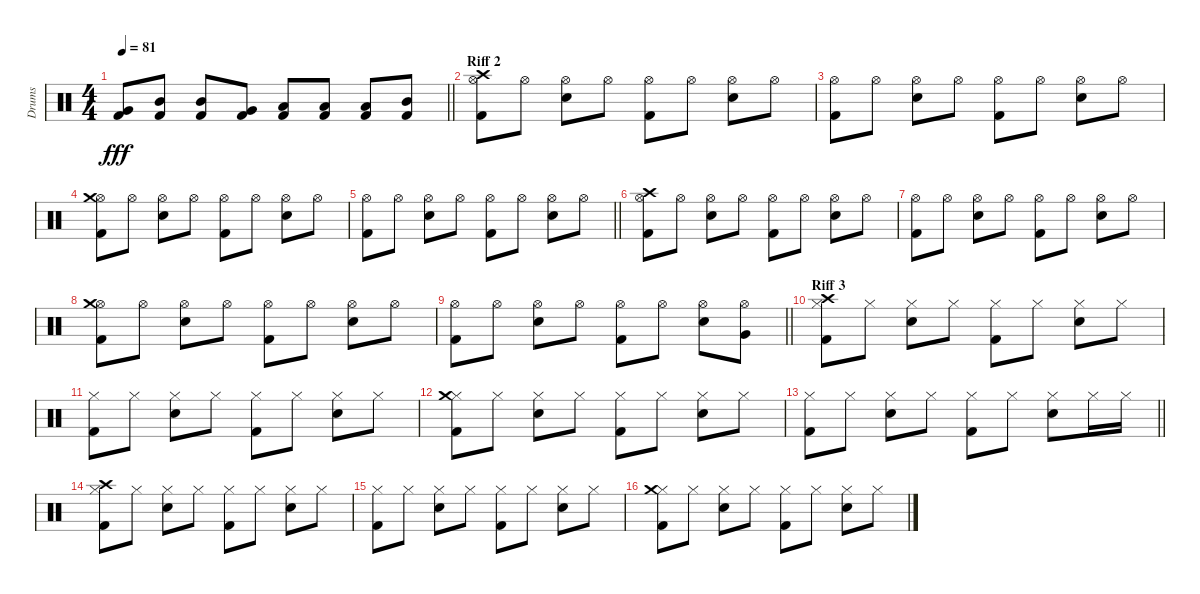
\track ("Drums" "Drums") {instrument percussion}
\staff {score}
\articulation defaults
\ts (4 4)
\tempo 81
\clef neutral
\barLineRight lightlight
\ks c
("Very Low Tom (hit)" "Kick (hit) 2").8{dy fff} ("Mid Tom (hit)" "Kick (hit) 2").8 ("Mid Tom (hit)" "Kick (hit) 2").8 ("Very Low Tom (hit)" "Kick (hit) 2").8 ("Low Tom (hit)" "Kick (hit) 2").8 ("Low Floor Tom (hit)" "Kick (hit) 2").8 ("Low Tom (hit)" "Kick (hit) 2").8 ("Mid Tom (hit)" "Kick (hit) 2").8 |
\section ("" "Riff 2")
("Hi-Hat (open)" "Crash high (hit)" "Kick (hit) 2").8 "Hi-Hat (open)".8 ("Hi-Hat (open)" "Electric Snare (hit)").8 "Hi-Hat (open)".8 ("Hi-Hat (open)" "Kick (hit) 2").8 "Hi-Hat (open)".8 ("Hi-Hat (open)" "Electric Snare (hit)").8 "Hi-Hat (open)".8 |
("Hi-Hat (open)" "Kick (hit) 2").8 "Hi-Hat (open)".8 ("Hi-Hat (open)" "Electric Snare (hit)").8 "Hi-Hat (open)".8 ("Hi-Hat (open)" "Kick (hit) 2").8 "Hi-Hat (open)".8 ("Hi-Hat (open)" "Electric Snare (hit)").8 "Hi-Hat (open)".8 |
("Hi-Hat (open)" "Crash medium (hit)" "Kick (hit) 2").8 "Hi-Hat (open)".8 ("Hi-Hat (open)" "Electric Snare (hit)").8 "Hi-Hat (open)".8 ("Hi-Hat (open)" "Kick (hit) 2").8 "Hi-Hat (open)".8 ("Hi-Hat (open)" "Electric Snare (hit)").8 "Hi-Hat (open)".8 |
\barLineRight lightlight
("Hi-Hat (open)" "Kick (hit) 2").8 "Hi-Hat (open)".8 ("Hi-Hat (open)" "Electric Snare (hit)").8 "Hi-Hat (open)".8 ("Hi-Hat (open)" "Kick (hit) 2").8 "Hi-Hat (open)".8 ("Hi-Hat (open)" "Electric Snare (hit)").8 "Hi-Hat (open)".8 |
("Hi-Hat (open)" "Crash high (hit)" "Kick (hit) 2").8 "Hi-Hat (open)".8 ("Hi-Hat (open)" "Electric Snare (hit)").8 "Hi-Hat (open)".8 ("Hi-Hat (open)" "Kick (hit) 2").8 "Hi-Hat (open)".8 ("Hi-Hat (open)" "Electric Snare (hit)").8 "Hi-Hat (open)".8 |
("Hi-Hat (open)" "Kick (hit) 2").8 "Hi-Hat (open)".8 ("Hi-Hat (open)" "Electric Snare (hit)").8 "Hi-Hat (open)".8 ("Hi-Hat (open)" "Kick (hit) 2").8 "Hi-Hat (open)".8 ("Hi-Hat (open)" "Electric Snare (hit)").8 "Hi-Hat (open)".8 |
("Hi-Hat (open)" "Crash medium (hit)" "Kick (hit) 2").8 "Hi-Hat (open)".8 ("Hi-Hat (open)" "Electric Snare (hit)").8 "Hi-Hat (open)".8 ("Hi-Hat (open)" "Kick (hit) 2").8 "Hi-Hat (open)".8 ("Hi-Hat (open)" "Electric Snare (hit)").8 "Hi-Hat (open)".8 |
\barLineRight lightlight
("Hi-Hat (open)" "Kick (hit) 2").8 "Hi-Hat (open)".8 ("Hi-Hat (open)" "Electric Snare (hit)").8 "Hi-Hat (open)".8 ("Hi-Hat (open)" "Kick (hit) 2").8 "Hi-Hat (open)".8 ("Hi-Hat (open)" "Electric Snare (hit)").8 ("Hi-Hat (open)" "Very Low Tom (hit)").8 |
\section ("" "Riff 3")
("Hi-Hat (closed)" "Crash high (hit)" "Kick (hit) 2").8 "Hi-Hat (closed)".8 ("Hi-Hat (closed)" "Electric Snare (hit)").8 "Hi-Hat (closed)".8 ("Hi-Hat (closed)" "Kick (hit) 2").8 "Hi-Hat (closed)".8 ("Hi-Hat (closed)" "Electric Snare (hit)").8 "Hi-Hat (closed)".8 |
("Hi-Hat (closed)" "Kick (hit) 2").8 "Hi-Hat (closed)".8 ("Hi-Hat (closed)" "Electric Snare (hit)").8 "Hi-Hat (closed)".8 ("Hi-Hat (closed)" "Kick (hit) 2").8 "Hi-Hat (closed)".8 ("Hi-Hat (closed)" "Electric Snare (hit)").8 "Hi-Hat (closed)".8 |
("Hi-Hat (closed)" "Crash medium (hit)" "Kick (hit) 2").8 "Hi-Hat (closed)".8 ("Hi-Hat (closed)" "Electric Snare (hit)").8 "Hi-Hat (closed)".8 ("Hi-Hat (closed)" "Kick (hit) 2").8 "Hi-Hat (closed)".8 ("Hi-Hat (closed)" "Electric Snare (hit)").8 "Hi-Hat (closed)".8 |
\barLineRight lightlight
("Hi-Hat (closed)" "Kick (hit) 2").8 "Hi-Hat (closed)".8 ("Hi-Hat (closed)" "Electric Snare (hit)").8 "Hi-Hat (closed)".8 ("Hi-Hat (closed)" "Kick (hit) 2").8 "Hi-Hat (closed)".8 ("Hi-Hat (closed)" "Electric Snare (hit)").8 "Hi-Hat (closed)".16 "Hi-Hat (closed)".16 |
("Hi-Hat (closed)" "Crash high (hit)" "Kick (hit) 2").8 "Hi-Hat (closed)".8 ("Hi-Hat (closed)" "Electric Snare (hit)").8 "Hi-Hat (closed)".8 ("Hi-Hat (closed)" "Kick (hit) 2").8 "Hi-Hat (closed)".8 ("Hi-Hat (closed)" "Electric Snare (hit)").8 "Hi-Hat (closed)".8 |
("Hi-Hat (closed)" "Kick (hit) 2").8 "Hi-Hat (closed)".8 ("Hi-Hat (closed)" "Electric Snare (hit)").8 "Hi-Hat (closed)".8 ("Hi-Hat (closed)" "Kick (hit) 2").8 "Hi-Hat (closed)".8 ("Hi-Hat (closed)" "Electric Snare (hit)").8 "Hi-Hat (closed)".8 |
("Hi-Hat (closed)" "Crash medium (hit)" "Kick (hit) 2").8 "Hi-Hat (closed)".8 ("Hi-Hat (closed)" "Electric Snare (hit)").8 "Hi-Hat (closed)".8 ("Hi-Hat (closed)" "Kick (hit) 2").8 "Hi-Hat (closed)".8 ("Hi-Hat (closed)" "Electric Snare (hit)").8 "Hi-Hat (closed)".8
